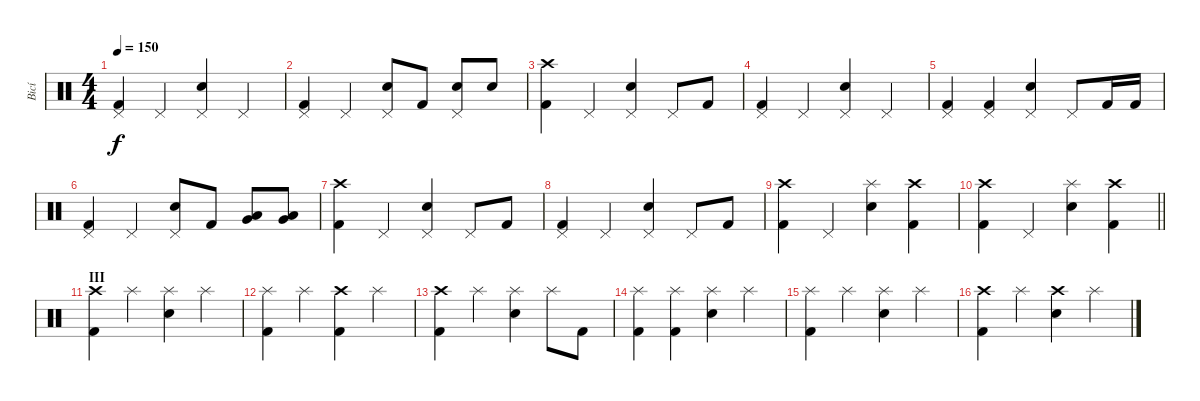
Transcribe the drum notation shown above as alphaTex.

\track ("Bicí" "Bicí") {instrument percussion}
\staff {score}
\articulation defaults
\ts (4 4)
\tempo 150
\clef neutral
\ks c
("Pedal Hi-Hat (hit)" "Kick (hit) 2").4{dy f} "Pedal Hi-Hat (hit)".4 ("Pedal Hi-Hat (hit)" "Electric Snare (hit)").4 "Pedal Hi-Hat (hit)".4 |
("Pedal Hi-Hat (hit)" "Kick (hit) 2").4 "Pedal Hi-Hat (hit)".4 ("Pedal Hi-Hat (hit)" "Electric Snare (hit)").8 "Kick (hit) 2".8 ("Pedal Hi-Hat (hit)" "Electric Snare (hit)").8 "Electric Snare (hit)".8 |
("Crash high (hit)" "Kick (hit) 2").4 "Pedal Hi-Hat (hit)".4 ("Pedal Hi-Hat (hit)" "Electric Snare (hit)").4 "Pedal Hi-Hat (hit)".8 "Kick (hit) 2".8 |
("Pedal Hi-Hat (hit)" "Kick (hit) 2").4 "Pedal Hi-Hat (hit)".4 ("Pedal Hi-Hat (hit)" "Electric Snare (hit)").4 "Pedal Hi-Hat (hit)".4 |
("Pedal Hi-Hat (hit)" "Kick (hit) 2").4 ("Pedal Hi-Hat (hit)" "Kick (hit) 2").4 ("Pedal Hi-Hat (hit)" "Electric Snare (hit)").4 "Pedal Hi-Hat (hit)".8 "Kick (hit) 2".16 "Kick (hit) 2".16 |
("Pedal Hi-Hat (hit)" "Kick (hit) 2").4 "Pedal Hi-Hat (hit)".4 ("Pedal Hi-Hat (hit)" "Electric Snare (hit)").8 "Kick (hit) 2".8 ("Low Floor Tom (hit)" "Very Low Tom (hit)").8{bd 60} ("Low Floor Tom (hit)" "Very Low Tom (hit)").8{bd 60} |
("Crash high (hit)" "Kick (hit) 2").4 "Pedal Hi-Hat (hit)".4 ("Pedal Hi-Hat (hit)" "Electric Snare (hit)").4 "Pedal Hi-Hat (hit)".8 "Kick (hit) 2".8 |
("Pedal Hi-Hat (hit)" "Kick (hit) 2").4 "Pedal Hi-Hat (hit)".4 ("Pedal Hi-Hat (hit)" "Electric Snare (hit)").4 "Pedal Hi-Hat (hit)".8 "Kick (hit) 2".8 |
("Crash high (hit)" "Kick (hit) 2").4 "Pedal Hi-Hat (hit)".4 ("Splash (hit)" "Electric Snare (hit)").4 ("Crash high (hit)" "Kick (hit) 2").4 |
\barLineRight lightlight
("Crash high (hit)" "Kick (hit) 2").4 "Pedal Hi-Hat (hit)".4 ("Splash (hit)" "Electric Snare (hit)").4 ("Crash high (hit)" "Kick (hit) 2").4 |
\section ("" "III")
("Crash high (hit)" "Kick (hit) 2").4 "Splash (hit)".4 ("Splash (hit)" "Electric Snare (hit)").4 "Splash (hit)".4 |
("Splash (hit)" "Kick (hit) 2").4 "Splash (hit)".4 ("Crash high (hit)" "Kick (hit) 2").4 "Splash (hit)".4 |
("Crash high (hit)" "Kick (hit) 2").4 "Splash (hit)".4 ("Splash (hit)" "Electric Snare (hit)").4 "Splash (hit)".8 "Kick (hit) 2".8 |
("Splash (hit)" "Kick (hit) 2").4 ("Splash (hit)" "Kick (hit) 2").4 ("Splash (hit)" "Electric Snare (hit)").4 "Splash (hit)".4 |
("Splash (hit)" "Kick (hit) 2").4 "Splash (hit)".4 ("Splash (hit)" "Electric Snare (hit)").4 "Splash (hit)".4 |
("Crash high (hit)" "Kick (hit) 2").4 "Splash (hit)".4 ("Crash high (hit)" "Electric Snare (hit)").4 "Splash (hit)".4
